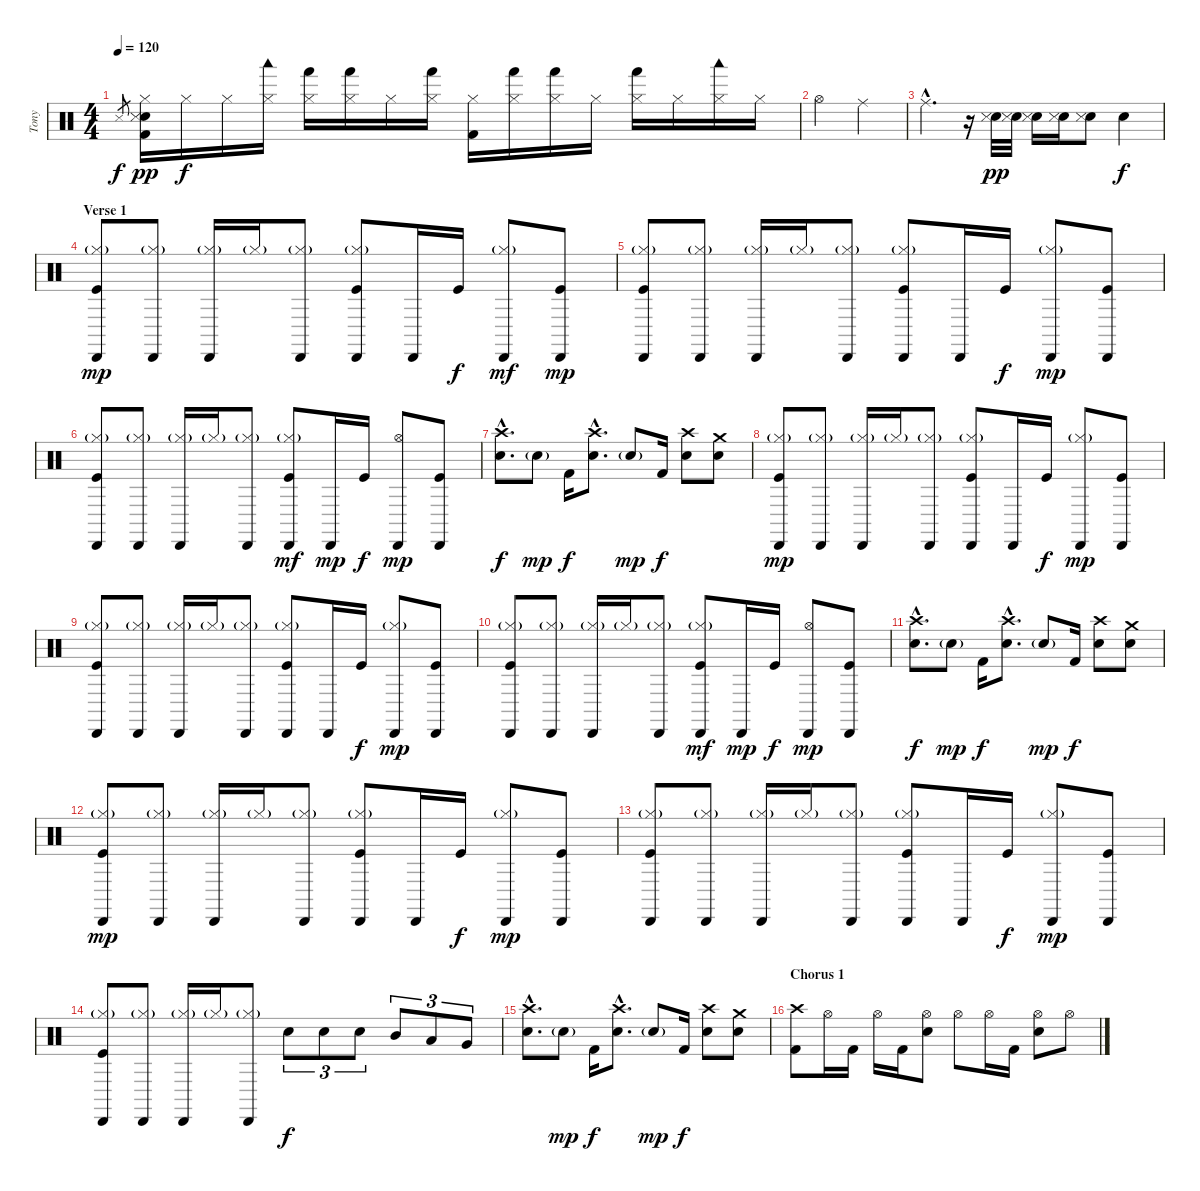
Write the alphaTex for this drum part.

\track ("Tony" "Tony") {instrument percussion}
\staff {score}
\articulation defaults
\ts (4 4)
\tempo 120
\clef neutral
\ks c "Snare (side stick) 3".8{gr dy f}
("Hand Clap (hit)" "Snare (side stick) 3" "Hi-Hat (closed)" "Kick (hit) 2").16{dy pp} "Hi-Hat (closed)".16{dy f} "Hi-Hat (closed)".16 ("Woodblock low (hit)" "Hi-Hat (closed)").16 ("Hand (hit)" "Hi-Hat (closed)").16 ("Hand (hit)" "Hi-Hat (closed)").16 "Hi-Hat (closed)".16 ("Hand (hit)" "Hi-Hat (closed)").16 ("Hi-Hat (closed)" "Kick (hit) 2").16 ("Hand (hit)" "Hi-Hat (closed)").16 ("Hand (hit)" "Hi-Hat (closed)").16 "Hi-Hat (closed)".16 ("Hand (hit)" "Hi-Hat (closed)").16 "Hi-Hat (closed)".16 ("Woodblock low (hit)" "Hi-Hat (closed)").16 "Hi-Hat (closed)".16 |
"Hi-Hat (open)".2 "Ride (middle)".2 |
"Ride (middle)"{hac}.4{d} r.16 ("Hand Clap (hit)" "Snare (side stick) 3").32{dy pp} ("Hand Clap (hit)" "Snare (side stick) 3").32 ("Hand Clap (hit)" "Snare (side stick) 3").16 ("Hand Clap (hit)" "Snare (side stick) 3").16 ("Hand Clap (hit)" "Snare (side stick) 3").8 "Snare (hit) 2".4{dy f} |
\section ("" "Verse 1")
("Cabasa (hit)" "Hi-Hat (closed)"{g} "Kick (hit)").8{dy mp} ("Cabasa (hit)" "Hi-Hat (closed)"{g}).8 ("Cabasa (hit)" "Hi-Hat (closed)"{g}).16 "Hi-Hat (closed)"{g}.16 ("Cabasa (hit)" "Hi-Hat (closed)"{g}).8 ("Cabasa (hit)" "Hi-Hat (closed)"{g} "Kick (hit)").8 "Cabasa (hit)".16 "Kick (hit)".16{dy f} ("Cabasa (hit)" "Hi-Hat (closed)"{g}).8{dy mf} ("Cabasa (hit)" "Kick (hit)").8{dy mp} |
("Cabasa (hit)" "Hi-Hat (closed)"{g} "Kick (hit)").8 ("Cabasa (hit)" "Hi-Hat (closed)"{g}).8 ("Cabasa (hit)" "Hi-Hat (closed)"{g}).16 "Hi-Hat (closed)"{g}.16 ("Cabasa (hit)" "Hi-Hat (closed)"{g}).8 ("Cabasa (hit)" "Hi-Hat (closed)"{g} "Kick (hit)").8 "Cabasa (hit)".16 "Kick (hit)".16{dy f} ("Cabasa (hit)" "Hi-Hat (closed)"{g}).8{dy mp} ("Cabasa (hit)" "Kick (hit)").8 |
("Cabasa (hit)" "Hi-Hat (closed)"{g} "Kick (hit)").8 ("Cabasa (hit)" "Hi-Hat (closed)"{g}).8 ("Cabasa (hit)" "Hi-Hat (closed)"{g}).16 "Hi-Hat (closed)"{g}.16 ("Cabasa (hit)" "Hi-Hat (closed)"{g}).8 ("Cabasa (hit)" "Hi-Hat (closed)"{g} "Kick (hit)").8{dy mf} "Cabasa (hit)".16{dy mp} "Kick (hit)".16{dy f} ("Cabasa (hit)" "Hi-Hat (open)").8{dy mp} ("Cabasa (hit)" "Kick (hit)").8 |
("Crash high (hit)"{hac} "Snare (hit) 2"{hac}).8{d dy f} "Snare (hit) 2"{g}.8{dy mp} "Kick (hit) 2".16{dy f} ("Crash high (hit)"{hac} "Snare (hit) 2"{hac}).8{d} "Snare (hit) 2"{g}.8{dy mp} "Kick (hit) 2".16{dy f} ("Crash high (hit)" "Snare (hit) 2").8 ("Crash medium (hit)" "Snare (hit) 2").8 |
("Cabasa (hit)" "Hi-Hat (closed)"{g} "Kick (hit)").8{dy mp} ("Cabasa (hit)" "Hi-Hat (closed)"{g}).8 ("Cabasa (hit)" "Hi-Hat (closed)"{g}).16 "Hi-Hat (closed)"{g}.16 ("Cabasa (hit)" "Hi-Hat (closed)"{g}).8 ("Cabasa (hit)" "Hi-Hat (closed)"{g} "Kick (hit)").8 "Cabasa (hit)".16 "Kick (hit)".16{dy f} ("Cabasa (hit)" "Hi-Hat (closed)"{g}).8{dy mp} ("Cabasa (hit)" "Kick (hit)").8 |
("Cabasa (hit)" "Hi-Hat (closed)"{g} "Kick (hit)").8 ("Cabasa (hit)" "Hi-Hat (closed)"{g}).8 ("Cabasa (hit)" "Hi-Hat (closed)"{g}).16 "Hi-Hat (closed)"{g}.16 ("Cabasa (hit)" "Hi-Hat (closed)"{g}).8 ("Cabasa (hit)" "Hi-Hat (closed)"{g} "Kick (hit)").8 "Cabasa (hit)".16 "Kick (hit)".16{dy f} ("Cabasa (hit)" "Hi-Hat (closed)"{g}).8{dy mp} ("Cabasa (hit)" "Kick (hit)").8 |
("Cabasa (hit)" "Hi-Hat (closed)"{g} "Kick (hit)").8 ("Cabasa (hit)" "Hi-Hat (closed)"{g}).8 ("Cabasa (hit)" "Hi-Hat (closed)"{g}).16 "Hi-Hat (closed)"{g}.16 ("Cabasa (hit)" "Hi-Hat (closed)"{g}).8 ("Cabasa (hit)" "Hi-Hat (closed)"{g} "Kick (hit)").8{dy mf} "Cabasa (hit)".16{dy mp} "Kick (hit)".16{dy f} ("Cabasa (hit)" "Hi-Hat (open)").8{dy mp} ("Cabasa (hit)" "Kick (hit)").8 |
("Crash high (hit)"{hac} "Snare (hit) 2"{hac}).8{d dy f} "Snare (hit) 2"{g}.8{dy mp} "Kick (hit) 2".16{dy f} ("Crash high (hit)"{hac} "Snare (hit) 2"{hac}).8{d} "Snare (hit) 2"{g}.8{dy mp} "Kick (hit) 2".16{dy f} ("Crash high (hit)" "Snare (hit) 2").8 ("Crash medium (hit)" "Snare (hit) 2").8 |
("Cabasa (hit)" "Hi-Hat (closed)"{g} "Kick (hit)").8{dy mp} ("Cabasa (hit)" "Hi-Hat (closed)"{g}).8 ("Cabasa (hit)" "Hi-Hat (closed)"{g}).16 "Hi-Hat (closed)"{g}.16 ("Cabasa (hit)" "Hi-Hat (closed)"{g}).8 ("Cabasa (hit)" "Hi-Hat (closed)"{g} "Kick (hit)").8 "Cabasa (hit)".16 "Kick (hit)".16{dy f} ("Cabasa (hit)" "Hi-Hat (closed)"{g}).8{dy mp} ("Cabasa (hit)" "Kick (hit)").8 |
("Cabasa (hit)" "Hi-Hat (closed)"{g} "Kick (hit)").8 ("Cabasa (hit)" "Hi-Hat (closed)"{g}).8 ("Cabasa (hit)" "Hi-Hat (closed)"{g}).16 "Hi-Hat (closed)"{g}.16 ("Cabasa (hit)" "Hi-Hat (closed)"{g}).8 ("Cabasa (hit)" "Hi-Hat (closed)"{g} "Kick (hit)").8 "Cabasa (hit)".16 "Kick (hit)".16{dy f} ("Cabasa (hit)" "Hi-Hat (closed)"{g}).8{dy mp} ("Cabasa (hit)" "Kick (hit)").8 |
("Cabasa (hit)" "Hi-Hat (closed)"{g} "Kick (hit)").8 ("Cabasa (hit)" "Hi-Hat (closed)"{g}).8 ("Cabasa (hit)" "Hi-Hat (closed)"{g}).16 "Hi-Hat (closed)"{g}.16 ("Cabasa (hit)" "Hi-Hat (closed)"{g}).8 "Snare (hit) 2".8{tu (3 2) dy f} "Snare (hit) 2".8{tu (3 2)} "Snare (hit) 2".8{tu (3 2)} "Mid Tom (hit)".8{tu (3 2)} "Low Tom (hit)".8{tu (3 2)} "Very Low Tom (hit)".8{tu (3 2)} |
("Crash high (hit)"{hac} "Snare (hit) 2"{hac}).8{d} "Snare (hit) 2"{g}.8{dy mp} "Kick (hit) 2".16{dy f} ("Crash high (hit)"{hac} "Snare (hit) 2"{hac}).8{d} "Snare (hit) 2"{g}.8{dy mp} "Kick (hit) 2".16{dy f} ("Crash high (hit)" "Snare (hit) 2").8 ("Crash medium (hit)" "Snare (hit) 2").8 |
\section ("" "Chorus 1")
("Crash high (hit)" "Kick (hit) 2").8 "Hi-Hat (open)".16 "Kick (hit) 2".16 "Hi-Hat (open)".16 "Kick (hit) 2".16 ("Hi-Hat (open)" "Snare (hit) 2").8 "Hi-Hat (open)".8 "Hi-Hat (open)".16 "Kick (hit) 2".16 ("Hi-Hat (open)" "Snare (hit) 2").8 "Hi-Hat (open)".8
